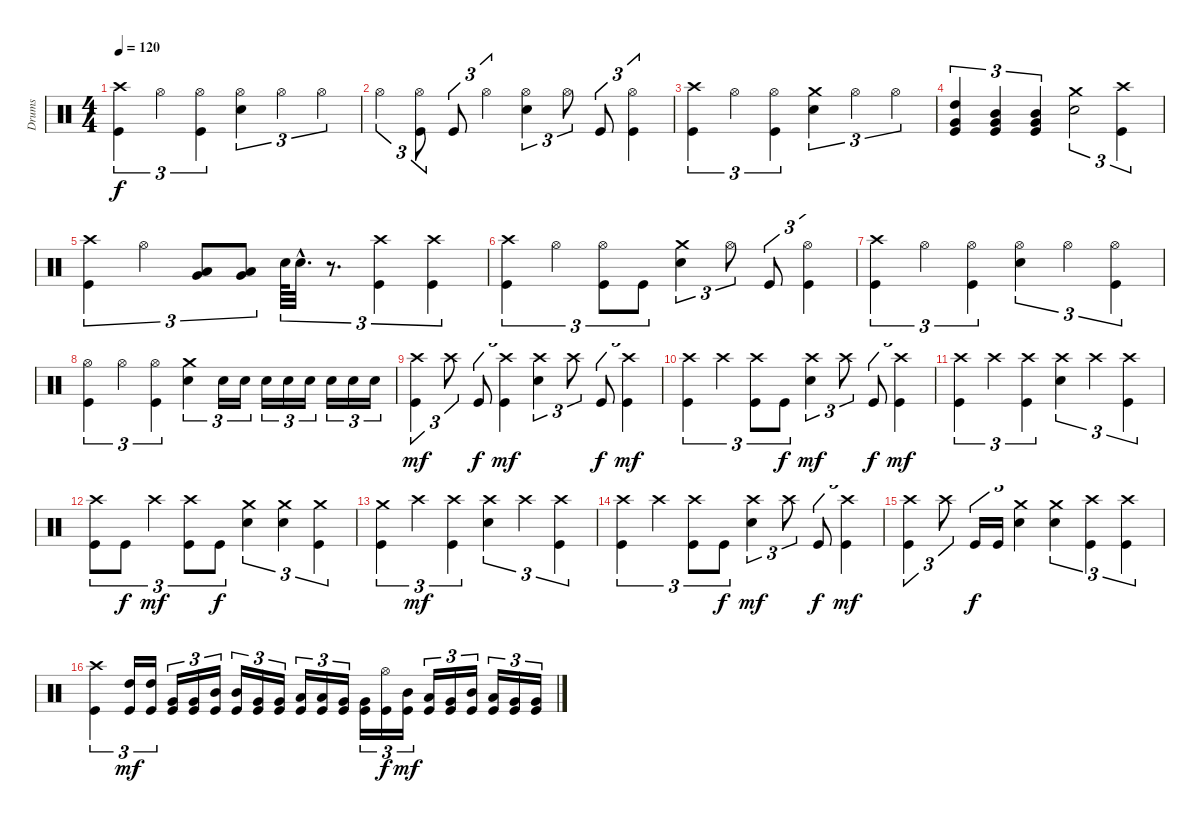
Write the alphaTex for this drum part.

\track ("Drums" "Drums") {instrument percussion}
\staff {score}
\articulation defaults
\ts (4 4)
\tempo 120
\clef neutral
\ks c
("Crash high (hit)" "Kick (hit)").4{tu (3 2) dy f} "Hi-Hat (open)".4{tu (3 2)} ("Hi-Hat (open)" "Kick (hit)").4{tu (3 2)} ("Hi-Hat (open)" "Electric Snare (hit)").4{tu (3 2)} "Hi-Hat (open)".4{tu (3 2)} "Hi-Hat (open)".4{tu (3 2)} |
"Hi-Hat (open)".4{tu (3 2)} ("Hi-Hat (open)" "Kick (hit)").8{tu (3 2)} "Kick (hit)".8{tu (3 2)} "Hi-Hat (open)".4{tu (3 2)} ("Hi-Hat (open)" "Electric Snare (hit)").4{tu (3 2)} "Hi-Hat (open)".8{tu (3 2)} "Kick (hit)".8{tu (3 2)} ("Hi-Hat (open)" "Kick (hit)").4{tu (3 2)} |
("Crash high (hit)" "Kick (hit)").4{tu (3 2)} "Hi-Hat (open)".4{tu (3 2)} ("Hi-Hat (open)" "Kick (hit)").4{tu (3 2)} ("Crash medium (hit)" "Electric Snare (hit)").4{tu (3 2)} "Hi-Hat (open)".4{tu (3 2)} "Hi-Hat (open)".4{tu (3 2)} |
("High Tom (hit)" "Very Low Tom (hit)" "Kick (hit)").4{tu (3 2)} ("Mid Tom (hit)" "Very Low Tom (hit)" "Kick (hit)").4{tu (3 2)} ("Mid Tom (hit)" "Very Low Tom (hit)" "Kick (hit)").4{tu (3 2)} ("Crash medium (hit)" "Electric Snare (hit)").2{tu (3 2)} ("Crash high (hit)" "Kick (hit)").4{tu (3 2)} |
("Crash high (hit)" "Kick (hit)").4{tu (3 2)} "Hi-Hat (open)".4{tu (3 2)} ("Low Tom (hit)" "Very Low Tom (hit)").8{tu (3 2)} ("Low Tom (hit)" "Very Low Tom (hit)").8{tu (3 2)} "Electric Snare (hit)".64{tu (3 2)} "Electric Snare (hit)"{hac}.32{d tu (3 2)} r.8{d tu (3 2)} ("Crash high (hit)" "Kick (hit)").4{tu (3 2)} ("Crash high (hit)" "Kick (hit)").4{tu (3 2)} |
("Crash high (hit)" "Kick (hit)").4{tu (3 2)} "Hi-Hat (open)".4{tu (3 2)} ("Hi-Hat (open)" "Kick (hit)").8{tu (3 2)} "Kick (hit)".8{tu (3 2)} ("Crash medium (hit)" "Electric Snare (hit)").4{tu (3 2)} "Hi-Hat (open)".8{tu (3 2)} "Kick (hit)".8{tu (3 2)} ("Hi-Hat (open)" "Kick (hit)").4{tu (3 2)} |
("Crash high (hit)" "Kick (hit)").4{tu (3 2)} "Hi-Hat (open)".4{tu (3 2)} ("Hi-Hat (open)" "Kick (hit)").4{tu (3 2)} ("Hi-Hat (open)" "Electric Snare (hit)").4{tu (3 2)} "Hi-Hat (open)".4{tu (3 2)} ("Hi-Hat (open)" "Kick (hit)").4{tu (3 2)} |
("Hi-Hat (open)" "Kick (hit)").4{tu (3 2)} "Hi-Hat (open)".4{tu (3 2)} ("Hi-Hat (open)" "Kick (hit)").4{tu (3 2)} ("Crash medium (hit)" "Electric Snare (hit)").4{tu (3 2)} "Electric Snare (hit)".16{tu (3 2)} "Electric Snare (hit)".16{tu (3 2)} "Electric Snare (hit)".16{tu (3 2)} "Electric Snare (hit)".16{tu (3 2)} "Electric Snare (hit)".16{tu (3 2)} "Electric Snare (hit)".16{tu (3 2)} "Electric Snare (hit)".16{tu (3 2)} "Electric Snare (hit)".16{tu (3 2)} |
("Crash high (hit)" "Kick (hit)").4{tu (3 2) dy mf} "Crash high (hit)".8{tu (3 2)} "Kick (hit)".8{tu (3 2) dy f} ("Crash high (hit)" "Kick (hit)").4{tu (3 2) dy mf} ("Crash high (hit)" "Electric Snare (hit)").4{tu (3 2)} "Crash high (hit)".8{tu (3 2)} "Kick (hit)".8{tu (3 2) dy f} ("Crash high (hit)" "Kick (hit)").4{tu (3 2) dy mf} |
("Crash high (hit)" "Kick (hit)").4{tu (3 2)} "Crash high (hit)".4{tu (3 2)} ("Crash high (hit)" "Kick (hit)").8{tu (3 2)} "Kick (hit)".8{tu (3 2) dy f} ("Crash high (hit)" "Electric Snare (hit)").4{tu (3 2) dy mf} "Crash high (hit)".8{tu (3 2)} "Kick (hit)".8{tu (3 2) dy f} ("Crash high (hit)" "Kick (hit)").4{tu (3 2) dy mf} |
("Crash high (hit)" "Kick (hit)").4{tu (3 2)} "Crash high (hit)".4{tu (3 2)} ("Crash high (hit)" "Kick (hit)").4{tu (3 2)} ("Crash high (hit)" "Electric Snare (hit)").4{tu (3 2)} "Crash high (hit)".4{tu (3 2)} ("Crash high (hit)" "Kick (hit)").4{tu (3 2)} |
("Crash high (hit)" "Kick (hit)").8{tu (3 2)} "Kick (hit)".8{tu (3 2) dy f} "Crash high (hit)".4{tu (3 2) dy mf} ("Crash high (hit)" "Kick (hit)").8{tu (3 2)} "Kick (hit)".8{tu (3 2) dy f} ("Crash medium (hit)" "Electric Snare (hit)").4{tu (3 2)} ("Crash medium (hit)" "Electric Snare (hit)").4{tu (3 2)} ("Crash medium (hit)" "Kick (hit)").4{tu (3 2)} |
("Crash medium (hit)" "Kick (hit)").4{tu (3 2)} "Crash high (hit)".4{tu (3 2) dy mf} ("Crash high (hit)" "Kick (hit)").4{tu (3 2)} ("Crash high (hit)" "Electric Snare (hit)").4{tu (3 2)} "Crash high (hit)".4{tu (3 2)} ("Crash high (hit)" "Kick (hit)").4{tu (3 2)} |
("Crash high (hit)" "Kick (hit)").4{tu (3 2)} "Crash high (hit)".4{tu (3 2)} ("Crash high (hit)" "Kick (hit)").8{tu (3 2)} "Kick (hit)".8{tu (3 2) dy f} ("Crash high (hit)" "Electric Snare (hit)").4{tu (3 2) dy mf} "Crash high (hit)".8{tu (3 2)} "Kick (hit)".8{tu (3 2) dy f} ("Crash high (hit)" "Kick (hit)").4{tu (3 2) dy mf} |
("Crash high (hit)" "Kick (hit)").4{tu (3 2)} "Crash high (hit)".8{tu (3 2)} "Kick (hit)".16{tu (3 2) dy f} "Kick (hit)".16{tu (3 2)} ("Crash medium (hit)" "Electric Snare (hit)").4{tu (3 2)} ("Crash medium (hit)" "Electric Snare (hit)").4{tu (3 2)} ("Crash high (hit)" "Kick (hit)").4{tu (3 2)} ("Crash high (hit)" "Kick (hit)").4{tu (3 2)} |
("Crash high (hit)" "Kick (hit)").4{tu (3 2)} ("High Tom (hit)" "Kick (hit)").16{tu (3 2) dy mf} ("High Tom (hit)" "Kick (hit)").16{tu (3 2)} ("Very Low Tom (hit)" "Kick (hit)").16{tu (3 2)} ("Very Low Tom (hit)" "Kick (hit)").16{tu (3 2)} ("Mid Tom (hit)" "Kick (hit)").16{tu (3 2)} ("Mid Tom (hit)" "Kick (hit)").16{tu (3 2)} ("Very Low Tom (hit)" "Kick (hit)").16{tu (3 2)} ("Very Low Tom (hit)" "Kick (hit)").16{tu (3 2)} ("Low Tom (hit)" "Kick (hit)").16{tu (3 2)} ("Low Tom (hit)" "Kick (hit)").16{tu (3 2)} ("Very Low Tom (hit)" "Kick (hit)").16{tu (3 2)} ("Very Low Tom (hit)" "Kick (hit)").16{tu (3 2)} ("Hi-Hat (open)" "Kick (hit)").16{tu (3 2) dy f} ("Mid Tom (hit)" "Kick (hit)").16{tu (3 2) dy mf} ("Low Tom (hit)" "Kick (hit)").16{tu (3 2)} ("Very Low Tom (hit)" "Kick (hit)").16{tu (3 2)} ("Mid Tom (hit)" "Kick (hit)").16{tu (3 2)} ("Low Tom (hit)" "Kick (hit)").16{tu (3 2)} ("Very Low Tom (hit)" "Kick (hit)").16{tu (3 2)} ("Very Low Tom (hit)" "Kick (hit)").16{tu (3 2)}
